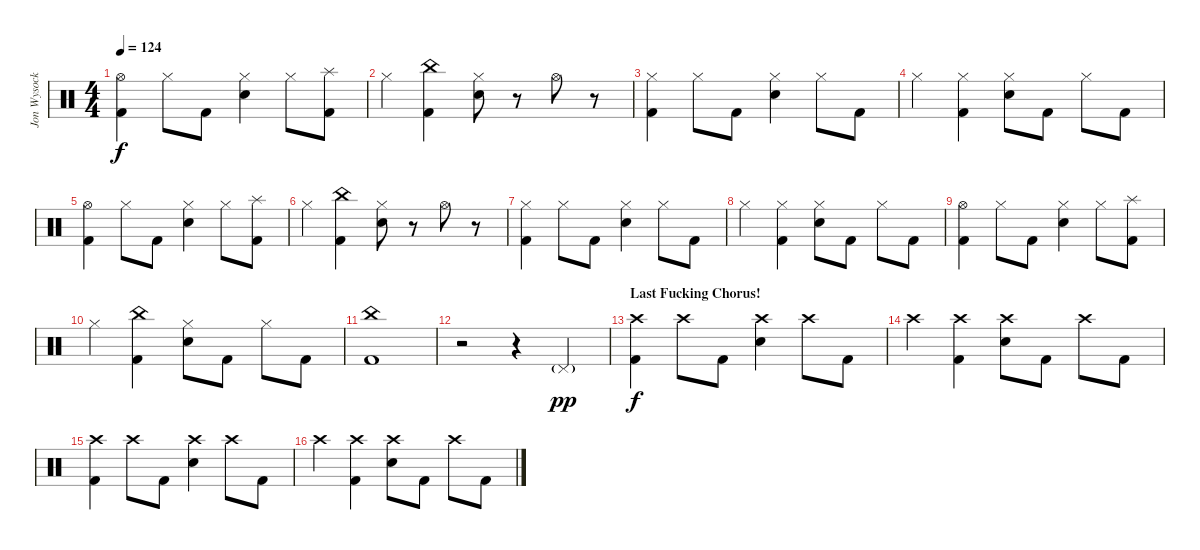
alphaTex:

\track ("Jon Wysocki - Drums" "Jon Wysock") {instrument percussion}
\staff {score}
\articulation defaults
\ts (4 4)
\tempo 124
\clef neutral
\ks c
("Hi-Hat (open)" "Kick (hit) 2").4{dy f} "Hi-Hat (closed)".8 "Kick (hit) 2".8 ("Hi-Hat (closed)" "Electric Snare (hit)").4 "Hi-Hat (closed)".8 ("Splash (hit)" "Kick (hit) 2").8 |
"Hi-Hat (closed)".4 ("China (hit)" "Kick (hit) 2").4 ("Hi-Hat (closed)" "Electric Snare (hit)").8 r.8 "Hi-Hat (open)".8 r.8 |
("Hi-Hat (closed)" "Kick (hit) 2").4 "Hi-Hat (closed)".8 "Kick (hit) 2".8 ("Hi-Hat (closed)" "Electric Snare (hit)").4 "Hi-Hat (closed)".8 "Kick (hit) 2".8 |
"Hi-Hat (closed)".4 ("Hi-Hat (closed)" "Kick (hit) 2").4 ("Hi-Hat (closed)" "Electric Snare (hit)").8 "Kick (hit) 2".8 "Hi-Hat (closed)".8 "Kick (hit) 2".8 |
("Hi-Hat (open)" "Kick (hit) 2").4 "Hi-Hat (closed)".8 "Kick (hit) 2".8 ("Hi-Hat (closed)" "Electric Snare (hit)").4 "Hi-Hat (closed)".8 ("Splash (hit)" "Kick (hit) 2").8 |
"Hi-Hat (closed)".4 ("China (hit)" "Kick (hit) 2").4 ("Hi-Hat (closed)" "Electric Snare (hit)").8 r.8 "Hi-Hat (open)".8 r.8 |
("Hi-Hat (closed)" "Kick (hit) 2").4 "Hi-Hat (closed)".8 "Kick (hit) 2".8 ("Hi-Hat (closed)" "Electric Snare (hit)").4 "Hi-Hat (closed)".8 "Kick (hit) 2".8 |
"Hi-Hat (closed)".4 ("Hi-Hat (closed)" "Kick (hit) 2").4 ("Hi-Hat (closed)" "Electric Snare (hit)").8 "Kick (hit) 2".8 "Hi-Hat (closed)".8 "Kick (hit) 2".8 |
("Hi-Hat (open)" "Kick (hit) 2").4 "Hi-Hat (closed)".8 "Kick (hit) 2".8 ("Hi-Hat (closed)" "Electric Snare (hit)").4 "Hi-Hat (closed)".8 ("Splash (hit)" "Kick (hit) 2").8 |
"Hi-Hat (closed)".4 ("China (hit)" "Kick (hit) 2").4 ("Hi-Hat (closed)" "Electric Snare (hit)").8 "Kick (hit) 2".8 "Hi-Hat (closed)".8 "Kick (hit) 2".8 |
("China (hit)" "Kick (hit) 2").1 |
r.2 r.4 "Pedal Hi-Hat (hit)"{g}.4{dy pp} |
\section ("" "Last Fucking Chorus!")
("Crash high (hit)" "Kick (hit) 2").4{dy f} "Crash high (hit)".8 "Kick (hit) 2".8 ("Crash high (hit)" "Electric Snare (hit)").4 "Crash high (hit)".8 "Kick (hit) 2".8 |
"Crash high (hit)".4 ("Crash high (hit)" "Kick (hit) 2").4 ("Crash high (hit)" "Electric Snare (hit)").8 "Kick (hit) 2".8 "Crash high (hit)".8 "Kick (hit) 2".8 |
("Crash high (hit)" "Kick (hit) 2").4 "Crash high (hit)".8 "Kick (hit) 2".8 ("Crash high (hit)" "Electric Snare (hit)").4 "Crash high (hit)".8 "Kick (hit) 2".8 |
"Crash high (hit)".4 ("Crash high (hit)" "Kick (hit) 2").4 ("Crash high (hit)" "Electric Snare (hit)").8 "Kick (hit) 2".8 "Crash high (hit)".8 "Kick (hit) 2".8
